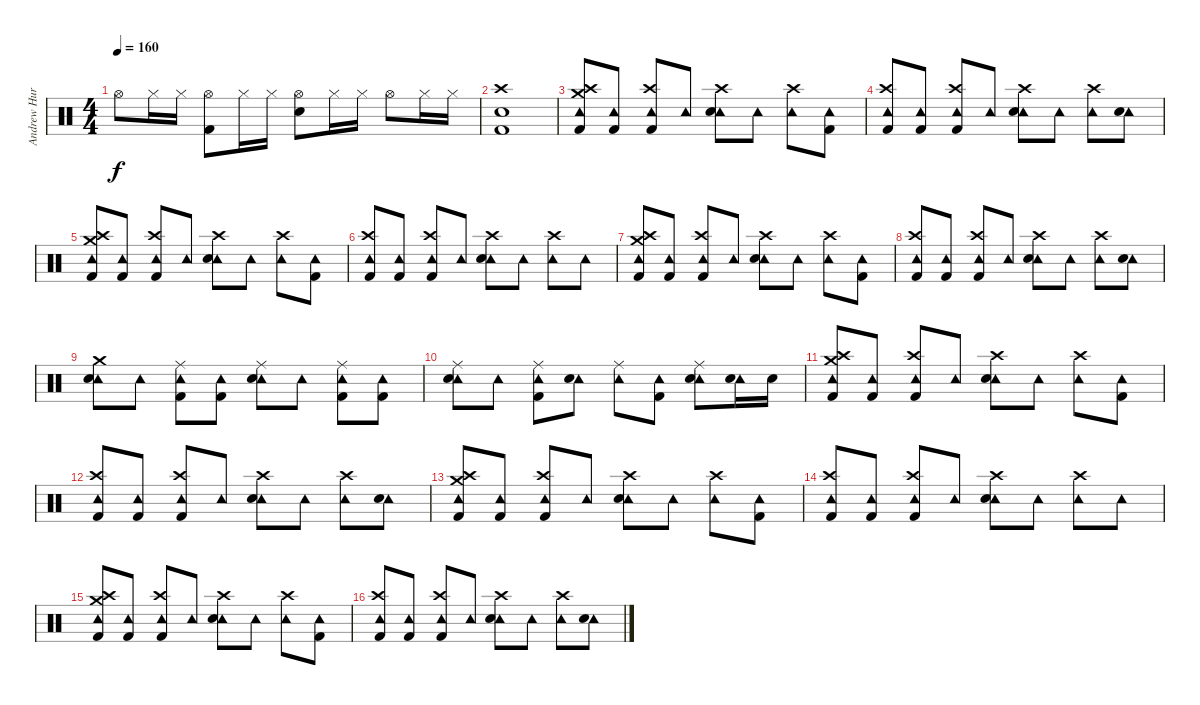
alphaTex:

\track ("Andrew Hurley (Drums)" "Andrew Hur") {instrument percussion}
\staff {score}
\articulation defaults
\ts (4 4)
\tempo 160
\clef neutral
\ks c "Hi-Hat (open)".8{dy f} "Hi-Hat (closed)".16 "Hi-Hat (closed)".16
("Hi-Hat (open)" "Kick (hit) 2").8 "Hi-Hat (closed)".16 "Hi-Hat (closed)".16 ("Hi-Hat (open)" "Snare (hit) 2").8 "Hi-Hat (closed)".16 "Hi-Hat (closed)".16 "Hi-Hat (open)".8 "Hi-Hat (closed)".16 "Hi-Hat (closed)".16 |
("Crash high (hit)" "Snare (hit) 2" "Kick (hit) 2").1 |
("Crash high (hit)" "Crash medium (hit)" "Tambourine (hit)" "Kick (hit) 2").8 ("Tambourine (hit)" "Kick (hit) 2").8 ("Crash high (hit)" "Tambourine (hit)" "Kick (hit) 2").8 "Tambourine (hit)".8 ("Crash high (hit)" "Tambourine (hit)" "Snare (hit) 2").8 "Tambourine (hit)".8 ("Crash high (hit)" "Tambourine (hit)").8 ("Tambourine (hit)" "Kick (hit) 2").8 |
("Crash high (hit)" "Tambourine (hit)" "Kick (hit) 2").8 ("Tambourine (hit)" "Kick (hit) 2").8 ("Crash high (hit)" "Tambourine (hit)" "Kick (hit) 2").8 "Tambourine (hit)".8 ("Crash high (hit)" "Tambourine (hit)" "Snare (hit) 2").8 "Tambourine (hit)".8 ("Crash high (hit)" "Tambourine (hit)").8 ("Tambourine (hit)" "Snare (hit) 2").8 |
("Crash high (hit)" "Crash medium (hit)" "Tambourine (hit)" "Kick (hit) 2").8 ("Tambourine (hit)" "Kick (hit) 2").8 ("Crash high (hit)" "Tambourine (hit)" "Kick (hit) 2").8 "Tambourine (hit)".8 ("Crash high (hit)" "Tambourine (hit)" "Snare (hit) 2").8 "Tambourine (hit)".8 ("Crash high (hit)" "Tambourine (hit)").8 ("Tambourine (hit)" "Kick (hit) 2").8 |
("Crash high (hit)" "Tambourine (hit)" "Kick (hit) 2").8 ("Tambourine (hit)" "Kick (hit) 2").8 ("Crash high (hit)" "Tambourine (hit)" "Kick (hit) 2").8 "Tambourine (hit)".8 ("Crash high (hit)" "Tambourine (hit)" "Snare (hit) 2").8 "Tambourine (hit)".8 ("Crash high (hit)" "Tambourine (hit)").8 "Tambourine (hit)".8 |
("Crash high (hit)" "Crash medium (hit)" "Tambourine (hit)" "Kick (hit) 2").8 ("Tambourine (hit)" "Kick (hit) 2").8 ("Crash high (hit)" "Tambourine (hit)" "Kick (hit) 2").8 "Tambourine (hit)".8 ("Crash high (hit)" "Tambourine (hit)" "Snare (hit) 2").8 "Tambourine (hit)".8 ("Crash high (hit)" "Tambourine (hit)").8 ("Tambourine (hit)" "Kick (hit) 2").8 |
("Crash high (hit)" "Tambourine (hit)" "Kick (hit) 2").8 ("Tambourine (hit)" "Kick (hit) 2").8 ("Crash high (hit)" "Tambourine (hit)" "Kick (hit) 2").8 "Tambourine (hit)".8 ("Crash high (hit)" "Tambourine (hit)" "Snare (hit) 2").8 "Tambourine (hit)".8 ("Crash high (hit)" "Tambourine (hit)").8 ("Tambourine (hit)" "Snare (hit) 2").8 |
("Crash medium (hit)" "Tambourine (hit)" "Snare (hit) 2").8 "Tambourine (hit)".8 ("Ride (middle)" "Tambourine (hit)" "Kick (hit) 2").8 ("Tambourine (hit)" "Kick (hit) 2").8 ("Ride (middle)" "Tambourine (hit)" "Snare (hit) 2").8 "Tambourine (hit)".8 ("Ride (middle)" "Tambourine (hit)" "Kick (hit) 2").8 ("Tambourine (hit)" "Kick (hit) 2").8 |
("Ride (middle)" "Tambourine (hit)" "Snare (hit) 2").8 "Tambourine (hit)".8 ("Ride (middle)" "Tambourine (hit)" "Kick (hit) 2").8 ("Tambourine (hit)" "Snare (hit) 2").8 ("Ride (middle)" "Tambourine (hit)").8 ("Tambourine (hit)" "Kick (hit) 2").8 ("Ride (middle)" "Tambourine (hit)" "Snare (hit) 2").8 ("Tambourine (hit)" "Snare (hit) 2").16 "Snare (hit) 2".16 |
("Crash high (hit)" "Crash medium (hit)" "Tambourine (hit)" "Kick (hit) 2").8 ("Tambourine (hit)" "Kick (hit) 2").8 ("Crash high (hit)" "Tambourine (hit)" "Kick (hit) 2").8 "Tambourine (hit)".8 ("Crash high (hit)" "Tambourine (hit)" "Snare (hit) 2").8 "Tambourine (hit)".8 ("Crash high (hit)" "Tambourine (hit)").8 ("Tambourine (hit)" "Kick (hit) 2").8 |
("Crash high (hit)" "Tambourine (hit)" "Kick (hit) 2").8 ("Tambourine (hit)" "Kick (hit) 2").8 ("Crash high (hit)" "Tambourine (hit)" "Kick (hit) 2").8 "Tambourine (hit)".8 ("Crash high (hit)" "Tambourine (hit)" "Snare (hit) 2").8 "Tambourine (hit)".8 ("Crash high (hit)" "Tambourine (hit)").8 ("Tambourine (hit)" "Snare (hit) 2").8 |
("Crash high (hit)" "Crash medium (hit)" "Tambourine (hit)" "Kick (hit) 2").8 ("Tambourine (hit)" "Kick (hit) 2").8 ("Crash high (hit)" "Tambourine (hit)" "Kick (hit) 2").8 "Tambourine (hit)".8 ("Crash high (hit)" "Tambourine (hit)" "Snare (hit) 2").8 "Tambourine (hit)".8 ("Crash high (hit)" "Tambourine (hit)").8 ("Tambourine (hit)" "Kick (hit) 2").8 |
("Crash high (hit)" "Tambourine (hit)" "Kick (hit) 2").8 ("Tambourine (hit)" "Kick (hit) 2").8 ("Crash high (hit)" "Tambourine (hit)" "Kick (hit) 2").8 "Tambourine (hit)".8 ("Crash high (hit)" "Tambourine (hit)" "Snare (hit) 2").8 "Tambourine (hit)".8 ("Crash high (hit)" "Tambourine (hit)").8 "Tambourine (hit)".8 |
("Crash high (hit)" "Crash medium (hit)" "Tambourine (hit)" "Kick (hit) 2").8 ("Tambourine (hit)" "Kick (hit) 2").8 ("Crash high (hit)" "Tambourine (hit)" "Kick (hit) 2").8 "Tambourine (hit)".8 ("Crash high (hit)" "Tambourine (hit)" "Snare (hit) 2").8 "Tambourine (hit)".8 ("Crash high (hit)" "Tambourine (hit)").8 ("Tambourine (hit)" "Kick (hit) 2").8 |
("Crash high (hit)" "Tambourine (hit)" "Kick (hit) 2").8 ("Tambourine (hit)" "Kick (hit) 2").8 ("Crash high (hit)" "Tambourine (hit)" "Kick (hit) 2").8 "Tambourine (hit)".8 ("Crash high (hit)" "Tambourine (hit)" "Snare (hit) 2").8 "Tambourine (hit)".8 ("Crash high (hit)" "Tambourine (hit)").8 ("Tambourine (hit)" "Snare (hit) 2").8
